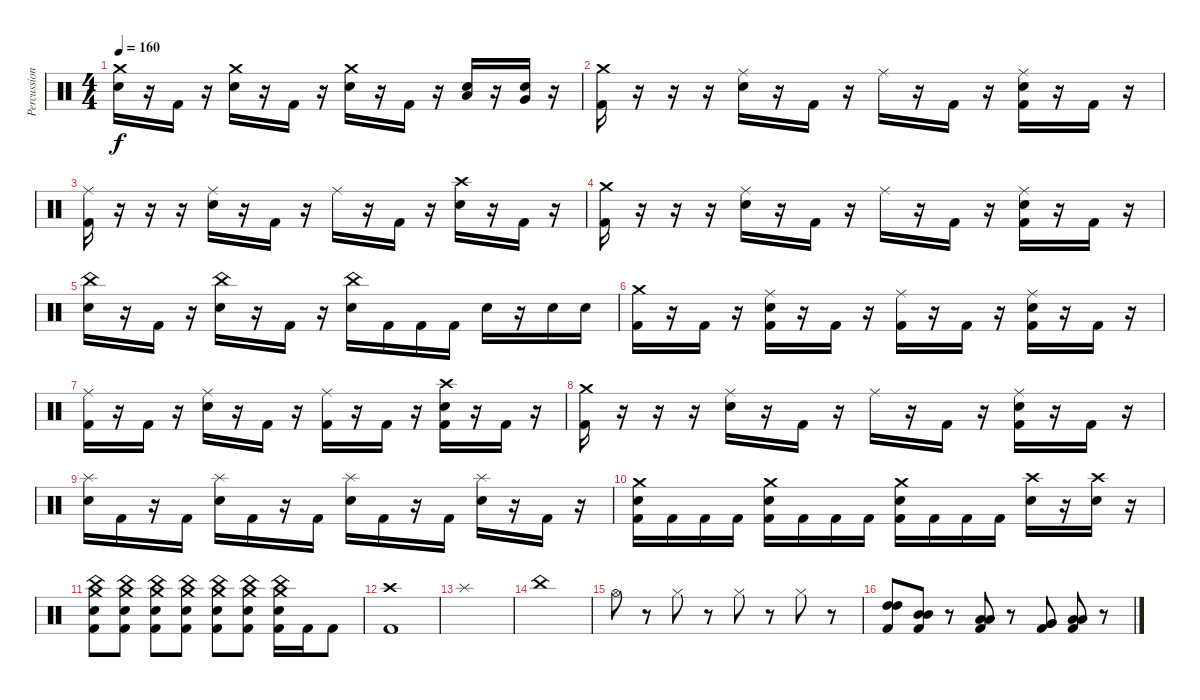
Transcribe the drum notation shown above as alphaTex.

\track ("Percussion" "Percussion") {instrument percussion}
\staff {score}
\articulation defaults
\ts (4 4)
\tempo 160
\clef neutral
\ks c
("Crash medium (hit)" "Snare (hit) 2").16{dy f} r.16 "Kick (hit) 2".16 r.16 ("Crash medium (hit)" "Snare (hit) 2").16 r.16 "Kick (hit) 2".16 r.16 ("Crash medium (hit)" "Snare (hit) 2").16 r.16 "Kick (hit) 2".16 r.16 ("Low Tom (hit)" "Snare (hit) 2").16 r.16 ("Very Low Tom (hit)" "Snare (hit) 2").16 r.16 |
("Crash medium (hit)" "Kick (hit) 2").16 r.16 r.16 r.16 ("Ride (middle)" "Snare (hit) 2").16 r.16 "Kick (hit) 2".16 r.16 "Ride (middle)".16 r.16 "Kick (hit) 2".16 r.16 ("Ride (middle)" "Snare (hit) 2" "Kick (hit) 2").16 r.16 "Kick (hit) 2".16 r.16 |
("Ride (middle)" "Kick (hit) 2").16 r.16 r.16 r.16 ("Ride (middle)" "Snare (hit) 2").16 r.16 "Kick (hit) 2".16 r.16 "Ride (middle)".16 r.16 "Kick (hit) 2".16 r.16 ("Crash high (hit)" "Snare (hit) 2").16 r.16 "Kick (hit) 2".16 r.16 |
("Crash medium (hit)" "Kick (hit) 2").16 r.16 r.16 r.16 ("Ride (middle)" "Snare (hit) 2").16 r.16 "Kick (hit) 2".16 r.16 "Ride (middle)".16 r.16 "Kick (hit) 2".16 r.16 ("Ride (middle)" "Snare (hit) 2" "Kick (hit) 2").16 r.16 "Kick (hit) 2".16 r.16 |
("China (hit)" "Snare (hit) 2").16 r.16 "Kick (hit) 2".16 r.16 ("China (hit)" "Snare (hit) 2").16 r.16 "Kick (hit) 2".16 r.16 ("China (hit)" "Snare (hit) 2").16 "Kick (hit) 2".16 "Kick (hit) 2".16 "Kick (hit) 2".16 "Snare (hit) 2".16 r.16 "Snare (hit) 2".16 "Snare (hit) 2".16 |
("Crash medium (hit)" "Kick (hit) 2").16 r.16 "Kick (hit) 2".16 r.16 ("Ride (middle)" "Snare (hit) 2" "Kick (hit) 2").16 r.16 "Kick (hit) 2".16 r.16 ("Ride (middle)" "Kick (hit) 2").16 r.16 "Kick (hit) 2".16 r.16 ("Ride (middle)" "Snare (hit) 2" "Kick (hit) 2").16 r.16 "Kick (hit) 2".16 r.16 |
("Ride (middle)" "Kick (hit) 2").16 r.16 "Kick (hit) 2".16 r.16 ("Ride (middle)" "Snare (hit) 2").16 r.16 "Kick (hit) 2".16 r.16 ("Ride (middle)" "Kick (hit) 2").16 r.16 "Kick (hit) 2".16 r.16 ("Crash high (hit)" "Snare (hit) 2" "Kick (hit) 2").16 r.16 "Kick (hit) 2".16 r.16 |
("Crash medium (hit)" "Kick (hit) 2").16 r.16 r.16 r.16 ("Ride (middle)" "Snare (hit) 2").16 r.16 "Kick (hit) 2".16 r.16 "Ride (middle)".16 r.16 "Kick (hit) 2".16 r.16 ("Ride (middle)" "Snare (hit) 2" "Kick (hit) 2").16 r.16 "Kick (hit) 2".16 r.16 |
("Splash (hit)" "Snare (hit) 2").16 "Kick (hit) 2".16 r.16 "Kick (hit) 2".16 ("Splash (hit)" "Snare (hit) 2").16 "Kick (hit) 2".16 r.16 "Kick (hit) 2".16 ("Splash (hit)" "Snare (hit) 2").16 "Kick (hit) 2".16 r.16 "Kick (hit) 2".16 ("Splash (hit)" "Snare (hit) 2").16 r.16 "Kick (hit) 2".16 r.16 |
("Crash medium (hit)" "Snare (hit) 2" "Kick (hit) 2").16 "Kick (hit) 2".16 "Kick (hit) 2".16 "Kick (hit) 2".16 ("Crash medium (hit)" "Snare (hit) 2" "Kick (hit) 2").16 "Kick (hit) 2".16 "Kick (hit) 2".16 "Kick (hit) 2".16 ("Crash medium (hit)" "Snare (hit) 2" "Kick (hit) 2").16 "Kick (hit) 2".16 "Kick (hit) 2".16 "Kick (hit) 2".16 ("Crash high (hit)" "Snare (hit) 2").16 r.16 ("Crash high (hit)" "Snare (hit) 2").16 r.16 |
("Crash medium (hit)" "China (hit)" "Snare (hit) 2" "Kick (hit) 2").8 ("Crash medium (hit)" "China (hit)" "Snare (hit) 2" "Kick (hit) 2").8 ("Crash medium (hit)" "China (hit)" "Snare (hit) 2" "Kick (hit) 2").8 ("Crash medium (hit)" "China (hit)" "Snare (hit) 2" "Kick (hit) 2").8 ("Crash medium (hit)" "China (hit)" "Snare (hit) 2" "Kick (hit) 2").8 ("Crash medium (hit)" "China (hit)" "Snare (hit) 2" "Kick (hit) 2").8 ("Crash medium (hit)" "China (hit)" "Snare (hit) 2" "Kick (hit) 2").16 "Kick (hit) 2".16 "Kick (hit) 2".8 |
("Crash high (hit)" "Kick (hit) 2").1 |
"Splash (hit)".1 |
"China (hit)".1 |
"Hi-Hat (open)".8 r.8 "Hi-Hat (closed)".8 r.8 "Hi-Hat (closed)".8 r.8 "Hi-Hat (closed)".8 r.8 |
("High Tom (hit)" "High Tom (hit)" "Kick (hit) 2").8 ("Mid Tom (hit)" "Mid Tom (hit)" "Kick (hit) 2").8 r.8 ("Low Tom (hit)" "Low Tom (hit)" "Kick (hit) 2").8 r.8 ("Very Low Tom (hit)" "Very Low Tom (hit)" "Kick (hit) 2").8 ("Low Floor Tom (hit)" "Low Floor Tom (hit)" "Kick (hit) 2").8 r.8
